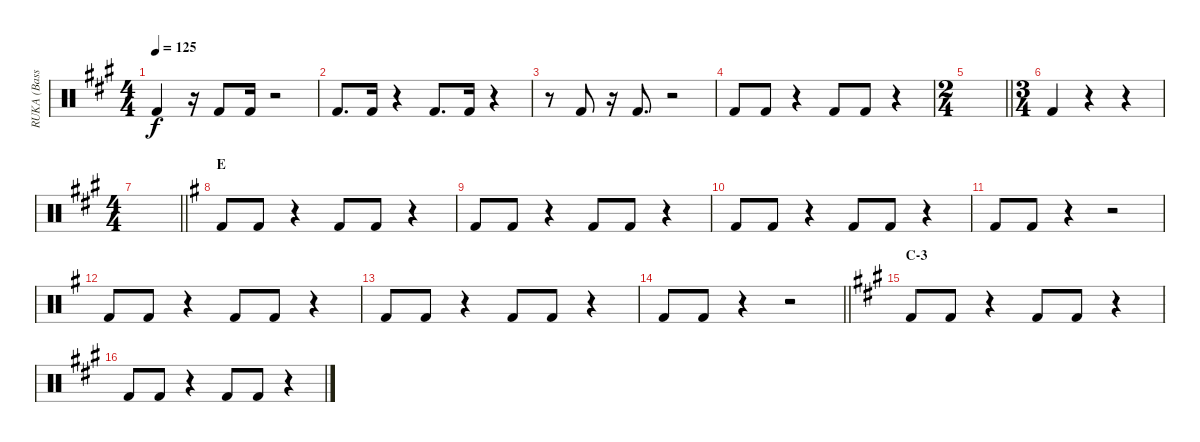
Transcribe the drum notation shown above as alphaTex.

\track ("RUKA (Bass Drum)" "RUKA (Bass") {instrument percussion}
\staff {score}
\articulation defaults
\ts (4 4)
\tempo 125
\clef neutral
\ks a "Kick (hit) 2".4{dy f}
r.16 "Kick (hit) 2".8 "Kick (hit) 2".16 r.2 |
"Kick (hit) 2".8{d} "Kick (hit) 2".16 r.4 "Kick (hit) 2".8{d} "Kick (hit) 2".16 r.4 |
r.8 "Kick (hit) 2".8 r.16 "Kick (hit) 2".8{d} r.2 |
"Kick (hit) 2".8 "Kick (hit) 2".8 r.4 "Kick (hit) 2".8 "Kick (hit) 2".8 r.4 |
\ts (2 4)
\barLineRight lightlight
|
\ts (3 4)
"Kick (hit) 2".4 r.4 r.4 |
\ts (4 4)
\barLineRight lightlight
|
\section ("" "E")
\ks g "Kick (hit) 2".8 "Kick (hit) 2".8
r.4 "Kick (hit) 2".8 "Kick (hit) 2".8 r.4 |
"Kick (hit) 2".8 "Kick (hit) 2".8 r.4 "Kick (hit) 2".8 "Kick (hit) 2".8 r.4 |
"Kick (hit) 2".8 "Kick (hit) 2".8 r.4 "Kick (hit) 2".8 "Kick (hit) 2".8 r.4 |
"Kick (hit) 2".8 "Kick (hit) 2".8 r.4 r.2 |
"Kick (hit) 2".8 "Kick (hit) 2".8 r.4 "Kick (hit) 2".8 "Kick (hit) 2".8 r.4 |
"Kick (hit) 2".8 "Kick (hit) 2".8 r.4 "Kick (hit) 2".8 "Kick (hit) 2".8 r.4 |
\barLineRight lightlight "Kick (hit) 2".8 "Kick (hit) 2".8
r.4 r.2 |
\section ("" "C-3")
\ks a "Kick (hit) 2".8 "Kick (hit) 2".8
r.4 "Kick (hit) 2".8 "Kick (hit) 2".8 r.4 |
"Kick (hit) 2".8 "Kick (hit) 2".8 r.4 "Kick (hit) 2".8 "Kick (hit) 2".8 r.4
